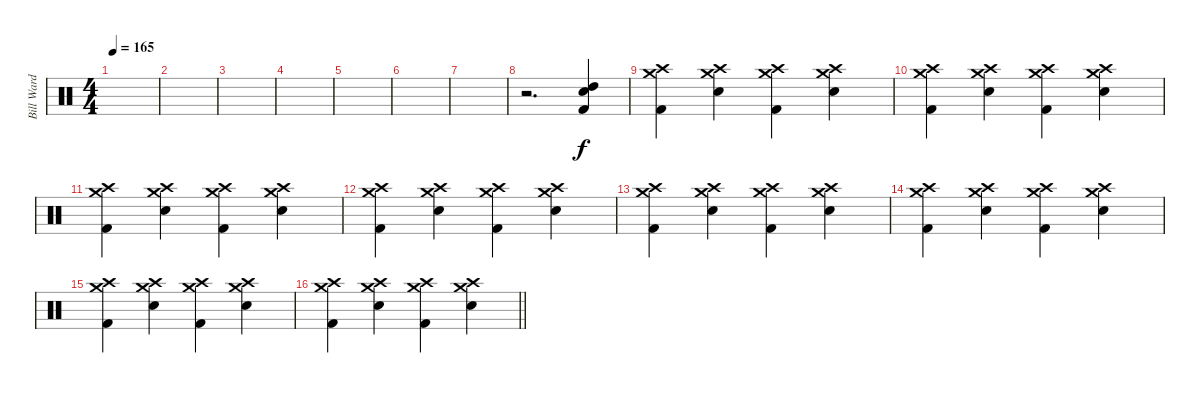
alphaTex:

\track ("Bill Ward" "Bill Ward") {instrument percussion}
\staff {score}
\articulation defaults
\ts (4 4)
\tempo 165
\clef neutral
\ks c
|
|
|
|
|
|
|
r.2{d} ("Snare (hit) 2" "High Tom (hit)" "Kick (hit) 2").4 |
("Crash high (hit)" "Crash medium (hit)" "Kick (hit) 2").4 ("Crash high (hit)" "Crash medium (hit)" "Snare (hit) 2").4 ("Crash high (hit)" "Crash medium (hit)" "Kick (hit) 2").4 ("Crash high (hit)" "Crash medium (hit)" "Snare (hit) 2").4 |
("Crash high (hit)" "Crash medium (hit)" "Kick (hit) 2").4 ("Crash high (hit)" "Crash medium (hit)" "Snare (hit) 2").4 ("Crash high (hit)" "Crash medium (hit)" "Kick (hit) 2").4 ("Crash high (hit)" "Crash medium (hit)" "Snare (hit) 2").4 |
("Crash high (hit)" "Crash medium (hit)" "Kick (hit) 2").4 ("Crash high (hit)" "Crash medium (hit)" "Snare (hit) 2").4 ("Crash high (hit)" "Crash medium (hit)" "Kick (hit) 2").4 ("Crash high (hit)" "Crash medium (hit)" "Snare (hit) 2").4 |
("Crash high (hit)" "Crash medium (hit)" "Kick (hit) 2").4 ("Crash high (hit)" "Crash medium (hit)" "Snare (hit) 2").4 ("Crash high (hit)" "Crash medium (hit)" "Kick (hit) 2").4 ("Crash high (hit)" "Crash medium (hit)" "Snare (hit) 2").4 |
("Crash high (hit)" "Crash medium (hit)" "Kick (hit) 2").4 ("Crash high (hit)" "Crash medium (hit)" "Snare (hit) 2").4 ("Crash high (hit)" "Crash medium (hit)" "Kick (hit) 2").4 ("Crash high (hit)" "Crash medium (hit)" "Snare (hit) 2").4 |
("Crash high (hit)" "Crash medium (hit)" "Kick (hit) 2").4 ("Crash high (hit)" "Crash medium (hit)" "Snare (hit) 2").4 ("Crash high (hit)" "Crash medium (hit)" "Kick (hit) 2").4 ("Crash high (hit)" "Crash medium (hit)" "Snare (hit) 2").4 |
("Crash high (hit)" "Crash medium (hit)" "Kick (hit) 2").4 ("Crash high (hit)" "Crash medium (hit)" "Snare (hit) 2").4 ("Crash high (hit)" "Crash medium (hit)" "Kick (hit) 2").4 ("Crash high (hit)" "Crash medium (hit)" "Snare (hit) 2").4 |
\barLineRight lightlight
("Crash high (hit)" "Crash medium (hit)" "Kick (hit) 2").4 ("Crash high (hit)" "Crash medium (hit)" "Snare (hit) 2").4 ("Crash high (hit)" "Crash medium (hit)" "Kick (hit) 2").4 ("Crash high (hit)" "Crash medium (hit)" "Snare (hit) 2").4
